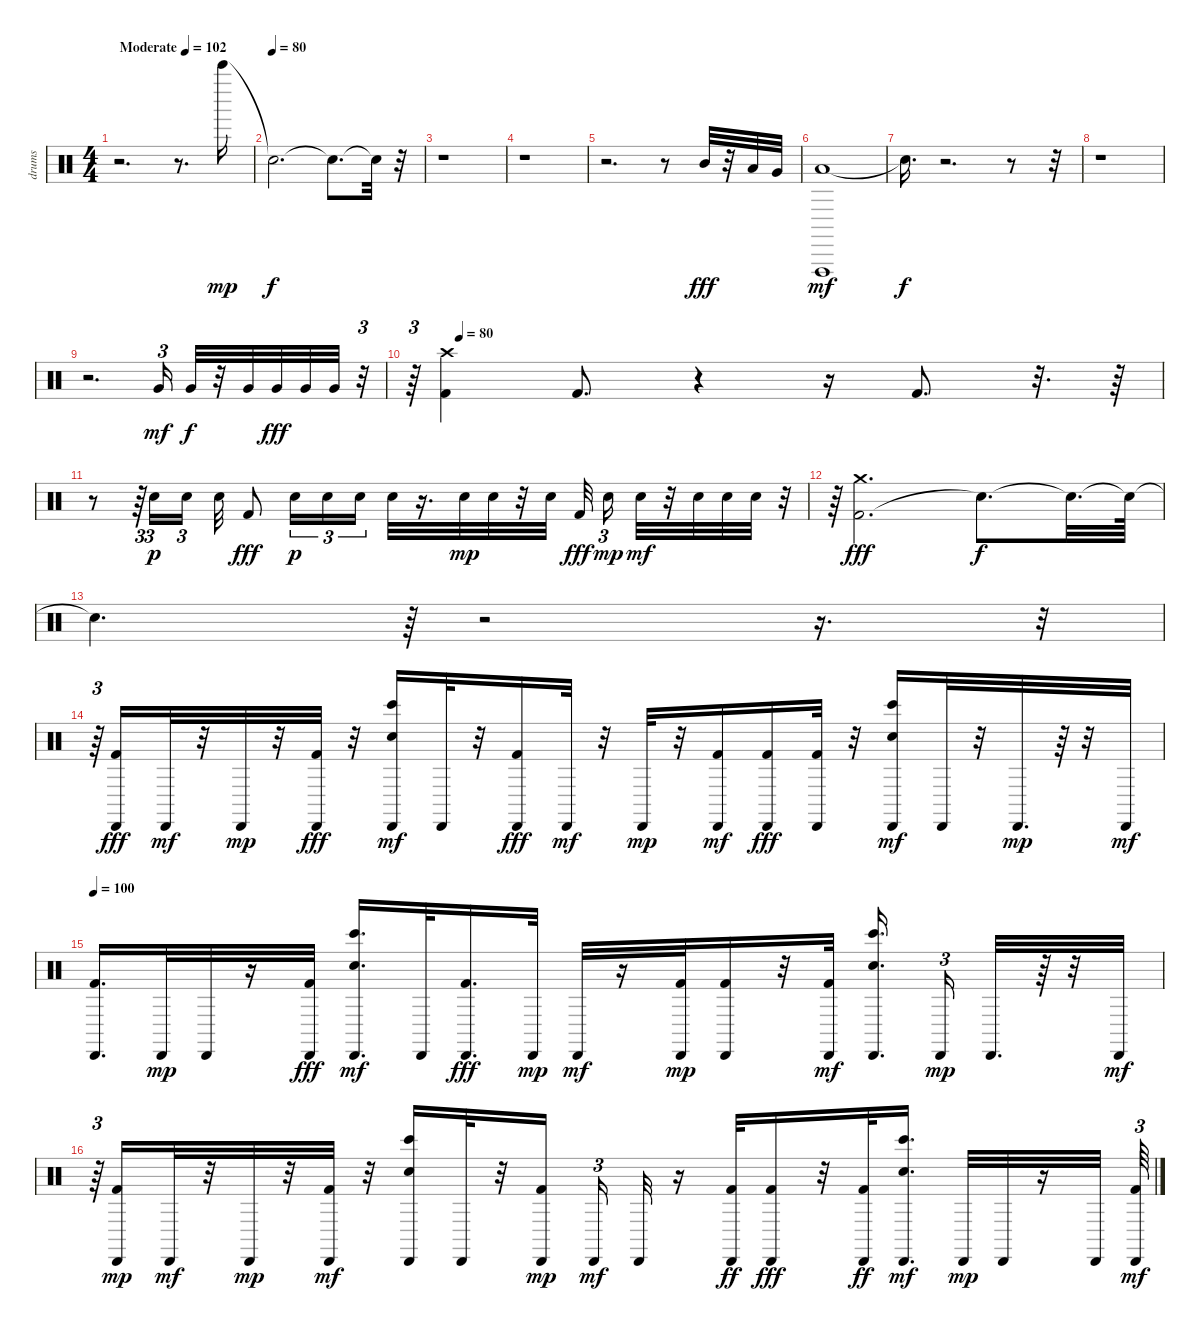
\track ("drums" "drums") {instrument percussion}
\staff {score}
\articulation defaults
\ts (4 4)
\tempo (102 "Moderate")
\clef neutral
\ks c
r.2{d dy mp} r.8{d} "Bell Tree (hit)".16 |
\tempo (80)
"Snare (hit)"{t}.2{d dy f} "Snare (hit)"{t}.8{d} "Snare (hit)"{t}.32 r.32 |
r.1 |
r.1 |
r.2{d} r.8 "Mid Tom (hit)".32{dy fff} r.32 "Low Tom (hit)".32 "Very Low Tom (hit)".32 |
("Low Floor Tom (hit)" "Vibraslap (hit)").1{dy mf} |
"Snare (hit)"{t}.16{d dy f} r.2{d} r.8 r.32 |
r.1 |
r.2{d} "Very Low Tom (hit)".16{tu (3 2) dy mf volume 15} "Very Low Tom (hit)".32{dy f} r.32 "Very Low Tom (hit)".32 "Very Low Tom (hit)".32{dy fff} "Very Low Tom (hit)".32 "Very Low Tom (hit)".32 r.32{tu (3 2)} |
\tempo (80 0.0625)
r.64{tu (3 2)} ("Kick (hit) 2" "Crash high (hit)").4 "Kick (hit) 2".8{d} r.4 r.16 "Kick (hit) 2".8{d} r.32{d} r.64 |
r.8 r.64{tu (3 2)} "Snare (hit) 2".16{tu (3 2) dy p} "Snare (hit) 2".16{tu (3 2)} "Snare (hit) 2".32 "Kick (hit) 2".8{dy fff} "Snare (hit) 2".16{tu (3 2) dy p} "Snare (hit) 2".16{tu (3 2)} "Snare (hit) 2".16{tu (3 2)} "Snare (hit) 2".32 r.16{d} "Snare (hit) 2".32{dy mp} "Snare (hit) 2".32 r.32 "Snare (hit) 2".32 "Kick (hit) 2".32{dy fff} "Snare (hit) 2".16{tu (3 2) dy mp} "Snare (hit) 2".32{dy mf} r.32 "Snare (hit) 2".32 "Snare (hit) 2".32 "Snare (hit) 2".32 r.32{tu (3 2)} |
r.64{tu (3 2)} ("Kick (hit) 2" "Crash medium (hit)").2{d dy fff} "Snare (hit)"{t}.8{d dy f} "Snare (hit)"{t}.32{d} "Snare (hit)"{t}.64 |
"Snare (hit)"{t}.4{d} r.64{tu (3 2)} r.2 r.16{d} r.32{tu (3 2)} |
r.64{tu (3 2)} ("Cabasa (hit)" "Kick (hit) 2").16{dy fff} "Cabasa (hit)".32{dy mf} r.32 "Cabasa (hit)".32{dy mp} r.32 ("Cabasa (hit)" "Kick (hit) 2").32{dy fff} r.32 ("Electric Snare (hit)" "Cabasa (hit)" "Bongo High (hit)").16{dy mf} "Cabasa (hit)".32 r.32 ("Cabasa (hit)" "Kick (hit) 2").16{dy fff} "Cabasa (hit)".32{dy mf} r.32 "Cabasa (hit)".32{dy mp} r.32 ("Kick (hit) 2" "Cabasa (hit)").16{dy mf} ("Cabasa (hit)" "Kick (hit) 2").16{dy fff} ("Cabasa (hit)" "Kick (hit) 2").32 r.32 ("Cabasa (hit)" "Electric Snare (hit)" "Bongo High (hit)").16{dy mf} "Cabasa (hit)".32 r.32 "Cabasa (hit)".32{d dy mp} r.64 r.32 "Cabasa (hit)".32{dy mf} |
\tempo 100
("Kick (hit) 2" "Cabasa (hit)").16{d} "Cabasa (hit)".32{dy mp} "Cabasa (hit)".32 r.16 ("Cabasa (hit)" "Kick (hit) 2").32{dy fff} ("Cabasa (hit)" "Electric Snare (hit)" "Bongo High (hit)").16{d dy mf} "Cabasa (hit)".32 ("Cabasa (hit)" "Kick (hit) 2").16{d dy fff} "Cabasa (hit)".32{dy mp} "Cabasa (hit)".32{dy mf} r.16 ("Kick (hit) 2" "Cabasa (hit)").32{dy mp} ("Kick (hit) 2" "Cabasa (hit)").16 r.32 ("Kick (hit) 2" "Cabasa (hit)").32{dy mf} ("Electric Snare (hit)" "Cabasa (hit)" "Bongo High (hit)").16{d} "Cabasa (hit)".16{tu (3 2) dy mp} "Cabasa (hit)".32{d} r.64 r.32 "Cabasa (hit)".32{dy mf} |
r.64{tu (3 2)} ("Kick (hit) 2" "Cabasa (hit)").16{dy mp} "Cabasa (hit)".32{dy mf} r.32 "Cabasa (hit)".32{dy mp} r.32 ("Kick (hit) 2" "Cabasa (hit)").32{dy mf} r.32 ("Electric Snare (hit)" "Cabasa (hit)" "Bongo High (hit)").16 "Cabasa (hit)".32 r.32 ("Kick (hit) 2" "Cabasa (hit)").16{dy mp} "Cabasa (hit)".16{tu (3 2) dy mf} "Cabasa (hit)".32 r.16 ("Cabasa (hit)" "Kick (hit) 2").32{dy ff} ("Cabasa (hit)" "Kick (hit) 2").16{dy fff} r.32 ("Cabasa (hit)" "Kick (hit) 2").32{dy ff} ("Cabasa (hit)" "Electric Snare (hit)" "Bongo High (hit)").16{d dy mf} "Cabasa (hit)".32{dy mp} "Cabasa (hit)".32 r.16 "Cabasa (hit)".32 ("Kick (hit) 2" "Cabasa (hit)").64{tu (3 2) dy mf}
